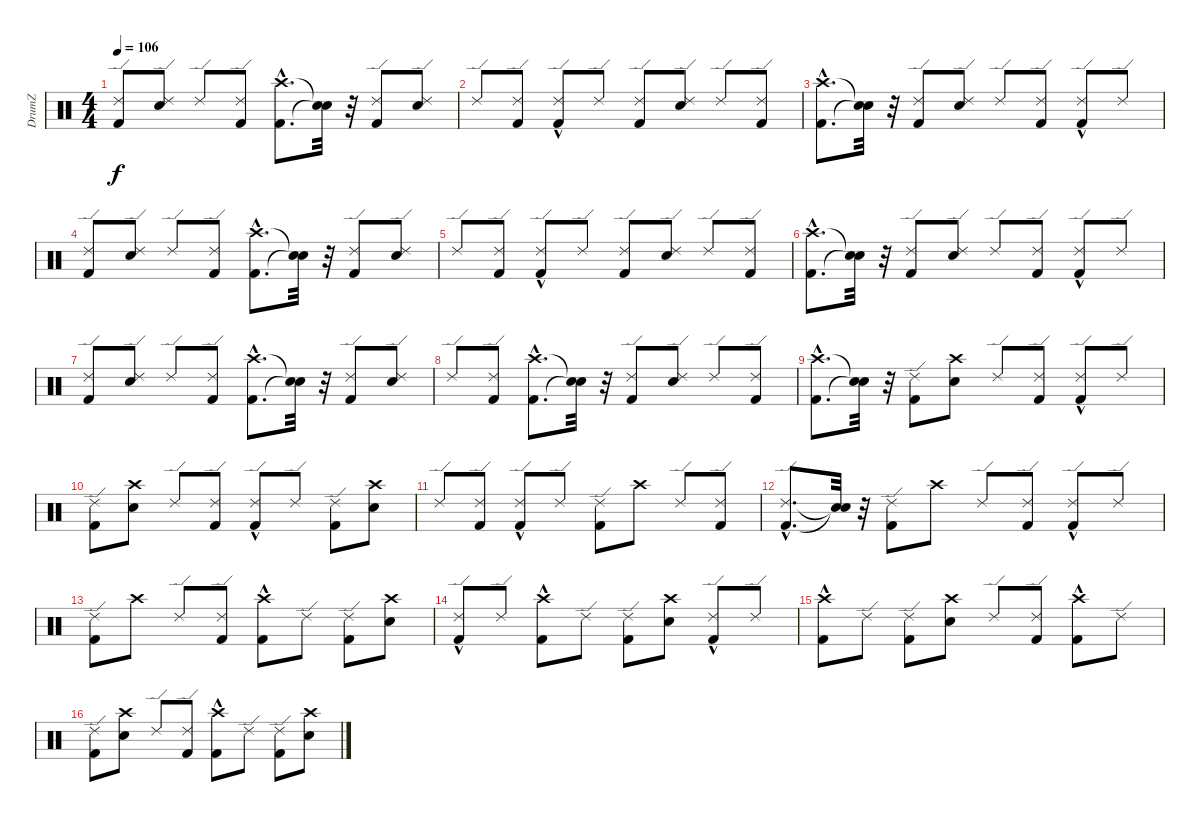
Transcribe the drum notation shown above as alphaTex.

\track ("DrumZ" "DrumZ") {instrument percussion}
\staff {score}
\articulation defaults
\ts (4 4)
\tempo 106
\clef neutral
\ks c
("Kick (hit) 2" "Ride (edge) 2").8{dy f} ("Electric Snare (hit)" "Ride (edge) 2").8 "Ride (edge) 2".8 ("Kick (hit) 2" "Ride (edge) 2").8 ("Kick (hit) 2"{hac} "Crash high (hit)"{hac}).8{d} ("Snare (hit)"{t} "Snare (hit)"{t}).32 r.32 ("Kick (hit) 2" "Ride (edge) 2").8 ("Electric Snare (hit)" "Ride (edge) 2").8 |
"Ride (edge) 2".8 ("Kick (hit) 2" "Ride (edge) 2").8 ("Kick (hit) 2"{hac} "Ride (edge) 2").8 "Ride (edge) 2".8 ("Kick (hit) 2" "Ride (edge) 2").8 ("Electric Snare (hit)" "Ride (edge) 2").8 "Ride (edge) 2".8 ("Kick (hit) 2" "Ride (edge) 2").8 |
("Kick (hit) 2"{hac} "Crash high (hit)"{hac}).8{d} ("Snare (hit)"{t} "Snare (hit)"{t}).32 r.32 ("Kick (hit) 2" "Ride (edge) 2").8 ("Electric Snare (hit)" "Ride (edge) 2").8 "Ride (edge) 2".8 ("Kick (hit) 2" "Ride (edge) 2").8 ("Kick (hit) 2"{hac} "Ride (edge) 2").8 "Ride (edge) 2".8 |
("Kick (hit) 2" "Ride (edge) 2").8 ("Electric Snare (hit)" "Ride (edge) 2").8 "Ride (edge) 2".8 ("Kick (hit) 2" "Ride (edge) 2").8 ("Kick (hit) 2"{hac} "Crash high (hit)"{hac}).8{d} ("Snare (hit)"{t} "Snare (hit)"{t}).32 r.32 ("Kick (hit) 2" "Ride (edge) 2").8 ("Electric Snare (hit)" "Ride (edge) 2").8 |
"Ride (edge) 2".8 ("Kick (hit) 2" "Ride (edge) 2").8 ("Kick (hit) 2"{hac} "Ride (edge) 2").8 "Ride (edge) 2".8 ("Kick (hit) 2" "Ride (edge) 2").8 ("Electric Snare (hit)" "Ride (edge) 2").8 "Ride (edge) 2".8 ("Kick (hit) 2" "Ride (edge) 2").8 |
("Kick (hit) 2"{hac} "Crash high (hit)"{hac}).8{d} ("Snare (hit)"{t} "Snare (hit)"{t}).32 r.32 ("Kick (hit) 2" "Ride (edge) 2").8 ("Electric Snare (hit)" "Ride (edge) 2").8 "Ride (edge) 2".8 ("Kick (hit) 2" "Ride (edge) 2").8 ("Kick (hit) 2"{hac} "Ride (edge) 2").8 "Ride (edge) 2".8 |
("Kick (hit) 2" "Ride (edge) 2").8 ("Electric Snare (hit)" "Ride (edge) 2").8 "Ride (edge) 2".8 ("Kick (hit) 2" "Ride (edge) 2").8 ("Kick (hit) 2"{hac} "Crash high (hit)"{hac}).8{d} ("Snare (hit)"{t} "Snare (hit)"{t}).32 r.32 ("Kick (hit) 2" "Ride (edge) 2").8 ("Electric Snare (hit)" "Ride (edge) 2").8 |
"Ride (edge) 2".8 ("Kick (hit) 2" "Ride (edge) 2").8 ("Kick (hit) 2"{hac} "Crash high (hit)"{hac}).8{d} ("Snare (hit)"{t} "Snare (hit)"{t}).32 r.32 ("Kick (hit) 2" "Ride (edge) 2").8 ("Electric Snare (hit)" "Ride (edge) 2").8 "Ride (edge) 2".8 ("Kick (hit) 2" "Ride (edge) 2").8 |
("Kick (hit) 2"{hac} "Crash high (hit)"{hac}).8{d} ("Snare (hit)"{t} "Snare (hit)"{t}).32 r.32 ("Kick (hit) 2" "Ride (edge) 2").8 ("Electric Snare (hit)" "Crash high (hit)").8 "Ride (edge) 2".8 ("Kick (hit) 2" "Ride (edge) 2").8 ("Kick (hit) 2"{hac} "Ride (edge) 2").8 "Ride (edge) 2".8 |
("Kick (hit) 2" "Ride (edge) 2").8 ("Electric Snare (hit)" "Crash high (hit)").8 "Ride (edge) 2".8 ("Kick (hit) 2" "Ride (edge) 2").8 ("Ride (edge) 2" "Kick (hit) 2"{hac}).8 "Ride (edge) 2".8 ("Ride (edge) 2" "Kick (hit) 2").8 ("Crash high (hit)" "Electric Snare (hit)").8 |
"Ride (edge) 2".8 ("Ride (edge) 2" "Kick (hit) 2").8 ("Ride (edge) 2" "Kick (hit) 2"{hac}).8 "Ride (edge) 2".8 ("Ride (edge) 2" "Kick (hit) 2").8 "Crash high (hit)".8 "Ride (edge) 2".8 ("Ride (edge) 2" "Kick (hit) 2").8 |
("Kick (hit) 2"{hac} "Ride (edge) 2"{hac}).8{d} ("Snare (hit)"{t} "Snare (hit)"{t}).32 r.32 ("Kick (hit) 2" "Ride (edge) 2").8 "Crash high (hit)".8 "Ride (edge) 2".8 ("Kick (hit) 2" "Ride (edge) 2").8 ("Kick (hit) 2"{hac} "Ride (edge) 2").8 "Ride (edge) 2".8 |
("Kick (hit) 2" "Ride (edge) 2").8 "Crash high (hit)".8 "Ride (edge) 2".8 ("Kick (hit) 2" "Ride (edge) 2").8 ("Kick (hit) 2"{hac} "Crash high (hit)").8 "Ride (edge) 2".8 ("Kick (hit) 2" "Ride (edge) 2").8 ("Crash high (hit)" "Electric Snare (hit)").8 |
("Ride (edge) 2" "Kick (hit) 2"{hac}).8 "Ride (edge) 2".8 ("Kick (hit) 2"{hac} "Crash high (hit)").8 "Ride (edge) 2".8 ("Kick (hit) 2" "Ride (edge) 2").8 ("Crash high (hit)" "Electric Snare (hit)").8 ("Ride (edge) 2" "Kick (hit) 2"{hac}).8 "Ride (edge) 2".8 |
("Kick (hit) 2"{hac} "Crash high (hit)").8 "Ride (edge) 2".8 ("Kick (hit) 2" "Ride (edge) 2").8 ("Crash high (hit)" "Electric Snare (hit)").8 "Ride (edge) 2".8 ("Ride (edge) 2" "Kick (hit) 2").8 ("Kick (hit) 2"{hac} "Crash high (hit)").8 "Ride (edge) 2".8 |
("Kick (hit) 2" "Ride (edge) 2").8 ("Crash high (hit)" "Electric Snare (hit)").8 "Ride (edge) 2".8 ("Ride (edge) 2" "Kick (hit) 2").8 ("Kick (hit) 2"{hac} "Crash high (hit)").8 "Ride (edge) 2".8 ("Kick (hit) 2" "Ride (edge) 2").8 ("Crash high (hit)" "Electric Snare (hit)").8
